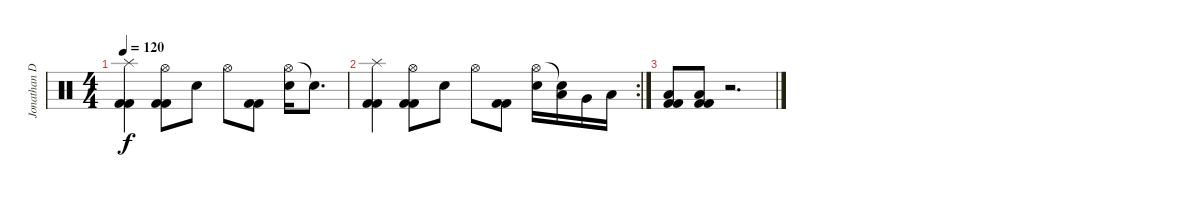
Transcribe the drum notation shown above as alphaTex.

\track ("Jonathan Davis" "Jonathan D") {instrument percussion}
\staff {score}
\articulation defaults
\ts (4 4)
\tempo 120
\clef neutral
\ks c
("Splash (hit)" "Kick (hit) 2" "Kick (hit) 2").4{dy f} ("Hi-Hat (open)" "Kick (hit) 2" "Kick (hit) 2").8 "Snare (hit) 2".8 "Hi-Hat (open)".8 ("Kick (hit) 2" "Kick (hit) 2").8 ("Hi-Hat (open)" "Snare (hit) 2").16 "Snare (hit)"{t}.8{d} |
\rc 2
("Splash (hit)" "Kick (hit) 2" "Kick (hit) 2").4 ("Hi-Hat (open)" "Kick (hit) 2" "Kick (hit) 2").8 "Snare (hit) 2".8 "Hi-Hat (open)".8 ("Kick (hit) 2" "Kick (hit) 2").8 ("Hi-Hat (open)" "Snare (hit) 2").16 ("Snare (hit)"{t} "Low Tom (hit)").16 "Very Low Tom (hit)".16 "Low Floor Tom (hit)".16 |
("Low Floor Tom (hit)" "Kick (hit) 2" "Kick (hit) 2").8 ("Low Floor Tom (hit)" "Kick (hit) 2" "Kick (hit) 2").8 r.2{d}
